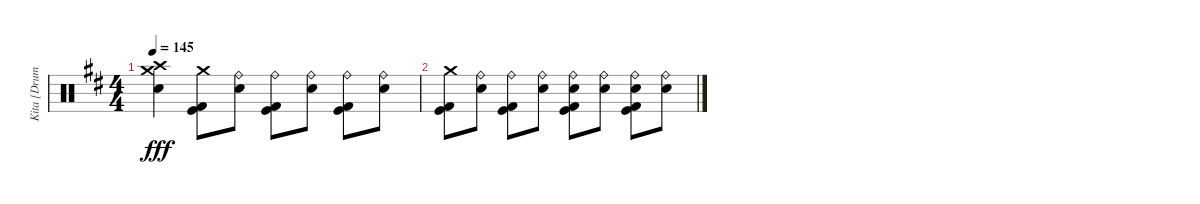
\track ("Kita [Drums]" "Kita [Drum") {instrument percussion}
\staff {score}
\articulation defaults
\ts (4 4)
\tempo 145
\clef neutral
\ks d
("Crash high (hit)" "Crash medium (hit)" "Electric Snare (hit)").4{dy fff} ("Crash medium (hit)" "Kick (hit)" "Kick (hit) 2").8 ("Ride (bell)" "Electric Snare (hit)").8 ("Ride (bell)" "Kick (hit)" "Kick (hit) 2").8 ("Ride (bell)" "Electric Snare (hit)").8 ("Ride (bell)" "Kick (hit)" "Kick (hit) 2").8 ("Ride (bell)" "Electric Snare (hit)").8 |
("Crash medium (hit)" "Kick (hit)" "Kick (hit) 2").8 ("Ride (bell)" "Electric Snare (hit)").8 ("Ride (bell)" "Kick (hit)" "Kick (hit) 2").8 ("Ride (bell)" "Electric Snare (hit)").8 ("Ride (bell)" "Electric Snare (hit)" "Kick (hit)" "Kick (hit) 2").8 ("Ride (bell)" "Electric Snare (hit)").8 ("Ride (bell)" "Electric Snare (hit)" "Kick (hit)" "Kick (hit) 2").8 ("Ride (bell)" "Electric Snare (hit)").8
